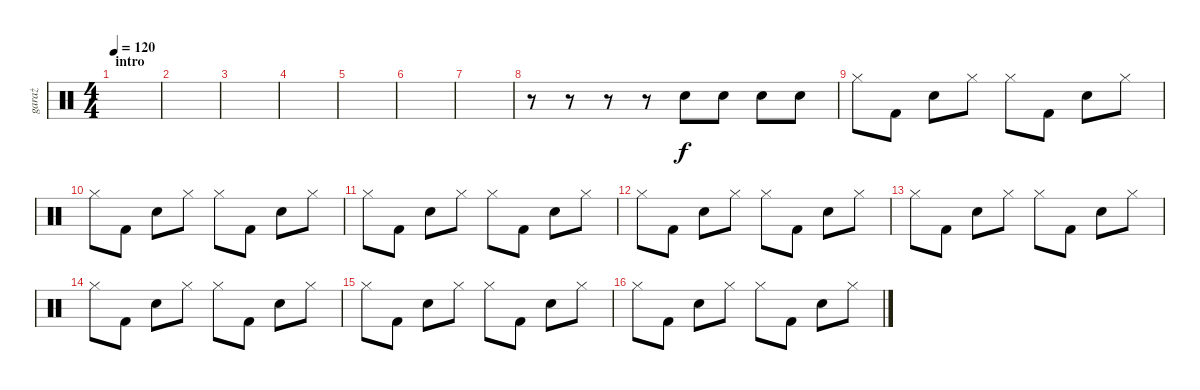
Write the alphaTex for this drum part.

\track ("garaż" "garaż") {instrument percussion}
\staff {score}
\articulation defaults
\ts (4 4)
\section ("" "intro")
\tempo 120
\clef neutral
\ks c
|
|
|
|
|
|
|
r.8 r.8 r.8 r.8 "Snare (hit) 2".8 "Snare (hit) 2".8 "Snare (hit) 2".8 "Snare (hit) 2".8 |
"Hi-Hat (closed)".8 "Kick (hit) 2".8 "Snare (hit) 2".8 "Hi-Hat (closed)".8 "Hi-Hat (closed)".8 "Kick (hit) 2".8 "Snare (hit) 2".8 "Hi-Hat (closed)".8 |
"Hi-Hat (closed)".8 "Kick (hit) 2".8 "Snare (hit) 2".8 "Hi-Hat (closed)".8 "Hi-Hat (closed)".8 "Kick (hit) 2".8 "Snare (hit) 2".8 "Hi-Hat (closed)".8 |
"Hi-Hat (closed)".8 "Kick (hit) 2".8 "Snare (hit) 2".8 "Hi-Hat (closed)".8 "Hi-Hat (closed)".8 "Kick (hit) 2".8 "Snare (hit) 2".8 "Hi-Hat (closed)".8 |
"Hi-Hat (closed)".8 "Kick (hit) 2".8 "Snare (hit) 2".8 "Hi-Hat (closed)".8 "Hi-Hat (closed)".8 "Kick (hit) 2".8 "Snare (hit) 2".8 "Hi-Hat (closed)".8 |
"Hi-Hat (closed)".8 "Kick (hit) 2".8 "Snare (hit) 2".8 "Hi-Hat (closed)".8 "Hi-Hat (closed)".8 "Kick (hit) 2".8 "Snare (hit) 2".8 "Hi-Hat (closed)".8 |
"Hi-Hat (closed)".8 "Kick (hit) 2".8 "Snare (hit) 2".8 "Hi-Hat (closed)".8 "Hi-Hat (closed)".8 "Kick (hit) 2".8 "Snare (hit) 2".8 "Hi-Hat (closed)".8 |
"Hi-Hat (closed)".8 "Kick (hit) 2".8 "Snare (hit) 2".8 "Hi-Hat (closed)".8 "Hi-Hat (closed)".8 "Kick (hit) 2".8 "Snare (hit) 2".8 "Hi-Hat (closed)".8 |
"Hi-Hat (closed)".8 "Kick (hit) 2".8 "Snare (hit) 2".8 "Hi-Hat (closed)".8 "Hi-Hat (closed)".8 "Kick (hit) 2".8 "Snare (hit) 2".8 "Hi-Hat (closed)".8
